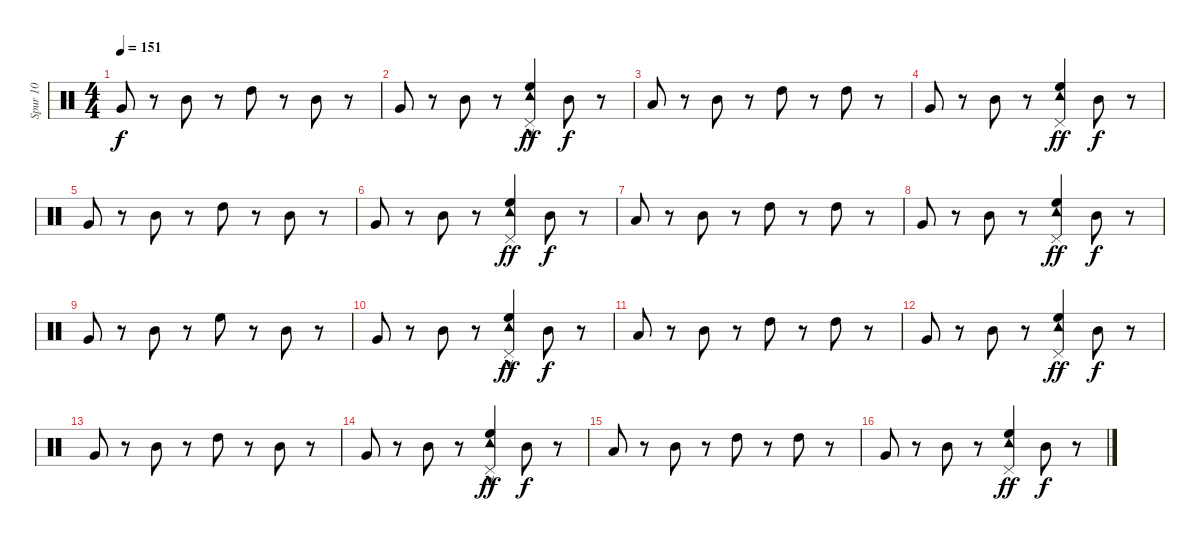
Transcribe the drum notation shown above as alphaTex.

\track ("Spur 10" "Spur 10") {instrument percussion}
\staff {score}
\articulation defaults
\ts (4 4)
\tempo 151
\clef neutral
\ks c "Very Low Tom (hit)".8{dy f}
r.8 "Mid Tom (hit)".8 r.8 "High Tom (hit)".8 r.8 "Mid Tom (hit)".8 r.8 |
"Very Low Tom (hit)".8 r.8 "Mid Tom (hit)".8 r.8 ("Pedal Hi-Hat (hit)" "Tambourine (hit)"{hac} "High Floor Tom (hit)").4{dy ff} "Mid Tom (hit)".8{dy f} r.8 |
"Low Tom (hit)".8 r.8 "Mid Tom (hit)".8 r.8 "High Tom (hit)".8 r.8 "High Tom (hit)".8 r.8 |
"Very Low Tom (hit)".8 r.8 "Mid Tom (hit)".8 r.8 ("Pedal Hi-Hat (hit)" "Tambourine (hit)" "High Floor Tom (hit)").4{dy ff} "Mid Tom (hit)".8{dy f} r.8 |
"Very Low Tom (hit)".8 r.8 "Mid Tom (hit)".8 r.8 "High Tom (hit)".8 r.8 "Mid Tom (hit)".8 r.8 |
"Very Low Tom (hit)".8 r.8 "Mid Tom (hit)".8 r.8 ("Pedal Hi-Hat (hit)" "Tambourine (hit)" "High Floor Tom (hit)").4{dy ff} "Mid Tom (hit)".8{dy f} r.8 |
"Low Tom (hit)".8 r.8 "Mid Tom (hit)".8 r.8 "High Tom (hit)".8 r.8 "High Tom (hit)".8 r.8 |
"Very Low Tom (hit)".8 r.8 "Mid Tom (hit)".8 r.8 ("Tambourine (hit)" "Pedal Hi-Hat (hit)" "High Floor Tom (hit)").4{dy ff} "Mid Tom (hit)".8{dy f} r.8 |
"Very Low Tom (hit)".8 r.8 "Mid Tom (hit)".8 r.8 "High Floor Tom (hit)".8 r.8 "Mid Tom (hit)".8 r.8 |
"Very Low Tom (hit)".8 r.8 "Mid Tom (hit)".8 r.8 ("Pedal Hi-Hat (hit)" "Tambourine (hit)"{hac} "High Floor Tom (hit)").4{dy ff} "Mid Tom (hit)".8{dy f} r.8 |
"Low Tom (hit)".8 r.8 "Mid Tom (hit)".8 r.8 "High Tom (hit)".8 r.8 "High Tom (hit)".8 r.8 |
"Very Low Tom (hit)".8 r.8 "Mid Tom (hit)".8 r.8 ("Pedal Hi-Hat (hit)" "Tambourine (hit)" "High Floor Tom (hit)").4{dy ff} "Mid Tom (hit)".8{dy f} r.8 |
"Very Low Tom (hit)".8 r.8 "Mid Tom (hit)".8 r.8 "High Tom (hit)".8 r.8 "Mid Tom (hit)".8 r.8 |
"Very Low Tom (hit)".8 r.8 "Mid Tom (hit)".8 r.8 ("Pedal Hi-Hat (hit)" "Tambourine (hit)"{hac} "High Floor Tom (hit)").4{dy ff} "Mid Tom (hit)".8{dy f} r.8 |
"Low Tom (hit)".8 r.8 "Mid Tom (hit)".8 r.8 "High Tom (hit)".8 r.8 "High Tom (hit)".8 r.8 |
"Very Low Tom (hit)".8 r.8 "Mid Tom (hit)".8 r.8 ("Pedal Hi-Hat (hit)" "Tambourine (hit)" "High Floor Tom (hit)").4{dy ff} "Mid Tom (hit)".8{dy f} r.8
